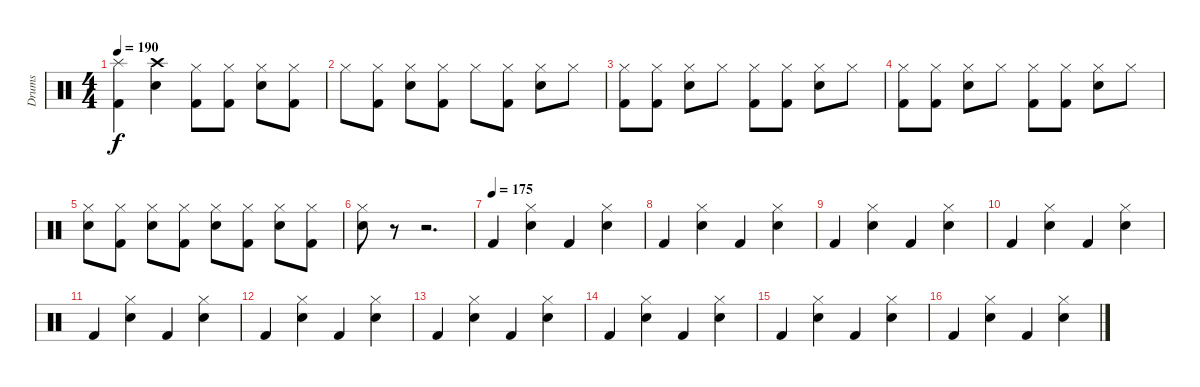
\track ("Drums" "Drums") {instrument percussion}
\staff {score}
\articulation defaults
\ts (4 4)
\tempo 190
\clef neutral
\ks c
("Kick (hit) 2" "Splash (hit)").4{dy f} ("Snare (hit) 2" "Crash high (hit)").4 ("Kick (hit) 2" "Hi-Hat (closed)").8 ("Kick (hit) 2" "Hi-Hat (closed)").8 ("Snare (hit) 2" "Hi-Hat (closed)").8 ("Kick (hit) 2" "Hi-Hat (closed)").8 |
"Hi-Hat (closed)".8 ("Kick (hit) 2" "Hi-Hat (closed)").8 ("Snare (hit) 2" "Hi-Hat (closed)").8 ("Kick (hit) 2" "Hi-Hat (closed)").8 "Hi-Hat (closed)".8 ("Kick (hit) 2" "Hi-Hat (closed)").8 ("Snare (hit) 2" "Hi-Hat (closed)").8 "Hi-Hat (closed)".8 |
("Kick (hit) 2" "Hi-Hat (closed)").8 ("Kick (hit) 2" "Hi-Hat (closed)").8 ("Snare (hit) 2" "Hi-Hat (closed)").8 "Hi-Hat (closed)".8 ("Kick (hit) 2" "Hi-Hat (closed)").8 ("Kick (hit) 2" "Hi-Hat (closed)").8 ("Snare (hit) 2" "Hi-Hat (closed)").8 "Hi-Hat (closed)".8 |
("Kick (hit) 2" "Hi-Hat (closed)").8 ("Kick (hit) 2" "Hi-Hat (closed)").8 ("Snare (hit) 2" "Hi-Hat (closed)").8 "Hi-Hat (closed)".8 ("Kick (hit) 2" "Hi-Hat (closed)").8 ("Kick (hit) 2" "Hi-Hat (closed)").8 ("Snare (hit) 2" "Hi-Hat (closed)").8 "Hi-Hat (closed)".8 |
("Snare (hit) 2" "Hi-Hat (closed)").8 ("Kick (hit) 2" "Hi-Hat (closed)").8 ("Snare (hit) 2" "Hi-Hat (closed)").8 ("Kick (hit) 2" "Hi-Hat (closed)").8 ("Snare (hit) 2" "Hi-Hat (closed)").8 ("Kick (hit) 2" "Hi-Hat (closed)").8 ("Snare (hit) 2" "Hi-Hat (closed)").8 ("Kick (hit) 2" "Hi-Hat (closed)").8 |
("Snare (hit) 2" "Hi-Hat (closed)").8 r.8 r.2{d} |
\tempo (175)
"Kick (hit) 2".4 ("Snare (hit) 2" "Hi-Hat (closed)").4 "Kick (hit) 2".4 ("Snare (hit) 2" "Hi-Hat (closed)").4 |
"Kick (hit) 2".4 ("Snare (hit) 2" "Hi-Hat (closed)").4 "Kick (hit) 2".4 ("Snare (hit) 2" "Hi-Hat (closed)").4 |
"Kick (hit) 2".4 ("Snare (hit) 2" "Hi-Hat (closed)").4 "Kick (hit) 2".4 ("Snare (hit) 2" "Hi-Hat (closed)").4 |
"Kick (hit) 2".4 ("Snare (hit) 2" "Hi-Hat (closed)").4 "Kick (hit) 2".4 ("Snare (hit) 2" "Hi-Hat (closed)").4 |
"Kick (hit) 2".4 ("Snare (hit) 2" "Hi-Hat (closed)").4 "Kick (hit) 2".4 ("Snare (hit) 2" "Hi-Hat (closed)").4 |
"Kick (hit) 2".4 ("Snare (hit) 2" "Hi-Hat (closed)").4 "Kick (hit) 2".4 ("Snare (hit) 2" "Hi-Hat (closed)").4 |
"Kick (hit) 2".4 ("Snare (hit) 2" "Hi-Hat (closed)").4 "Kick (hit) 2".4 ("Snare (hit) 2" "Hi-Hat (closed)").4 |
"Kick (hit) 2".4 ("Snare (hit) 2" "Hi-Hat (closed)").4 "Kick (hit) 2".4 ("Snare (hit) 2" "Hi-Hat (closed)").4 |
"Kick (hit) 2".4 ("Snare (hit) 2" "Hi-Hat (closed)").4 "Kick (hit) 2".4 ("Snare (hit) 2" "Hi-Hat (closed)").4 |
"Kick (hit) 2".4 ("Snare (hit) 2" "Hi-Hat (closed)").4 "Kick (hit) 2".4 ("Snare (hit) 2" "Hi-Hat (closed)").4
